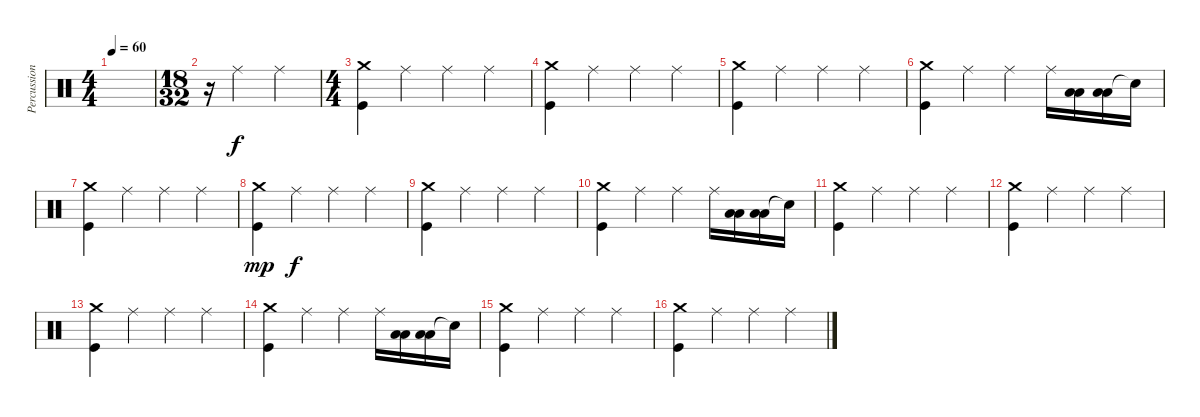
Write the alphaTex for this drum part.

\track ("Percussions" "Percussion") {instrument percussion}
\staff {score}
\articulation defaults
\ts (4 4)
\tempo 60
\clef neutral
\ks c
|
\ts (18 32)
r.16{volume 16} "Ride (middle)".4 "Ride (middle)".4 |
\ts (4 4)
("Crash medium (hit)" "Kick (hit)").4 "Ride (middle)".4 "Ride (middle)".4 "Ride (middle)".4 |
("Crash medium (hit)" "Kick (hit)").4 "Ride (middle)".4 "Ride (middle)".4 "Ride (middle)".4 |
("Crash medium (hit)" "Kick (hit)").4 "Ride (middle)".4 "Ride (middle)".4 "Ride (middle)".4 |
("Crash medium (hit)" "Kick (hit)").4 "Ride (middle)".4 "Ride (middle)".4 "Ride (middle)".16 ("Low Tom (hit)" "Low Tom (hit)").16{volume 8} ("Low Tom (hit)" "Low Tom (hit)").16 "Snare (hit)"{t}.16 |
("Crash medium (hit)" "Kick (hit)").4{volume 16} "Ride (middle)".4 "Ride (middle)".4 "Ride (middle)".4 |
("Crash medium (hit)" "Kick (hit)").4{dy mp} "Ride (middle)".4{dy f} "Ride (middle)".4 "Ride (middle)".4 |
("Crash medium (hit)" "Kick (hit)").4 "Ride (middle)".4 "Ride (middle)".4 "Ride (middle)".4 |
("Crash medium (hit)" "Kick (hit)").4 "Ride (middle)".4 "Ride (middle)".4 "Ride (middle)".16 ("Low Tom (hit)" "Low Tom (hit)").16{volume 12} ("Low Tom (hit)" "Low Tom (hit)").16 "Snare (hit)"{t}.16 |
("Crash medium (hit)" "Kick (hit)").4{volume 16} "Ride (middle)".4 "Ride (middle)".4 "Ride (middle)".4 |
("Crash medium (hit)" "Kick (hit)").4 "Ride (middle)".4 "Ride (middle)".4 "Ride (middle)".4 |
("Crash medium (hit)" "Kick (hit)").4 "Ride (middle)".4 "Ride (middle)".4 "Ride (middle)".4 |
("Crash medium (hit)" "Kick (hit)").4 "Ride (middle)".4 "Ride (middle)".4 "Ride (middle)".16 ("Low Tom (hit)" "Low Tom (hit)").16{volume 12} ("Low Tom (hit)" "Low Tom (hit)").16 "Snare (hit)"{t}.16 |
("Crash medium (hit)" "Kick (hit)").4{volume 16} "Ride (middle)".4 "Ride (middle)".4 "Ride (middle)".4 |
("Crash medium (hit)" "Kick (hit)").4 "Ride (middle)".4 "Ride (middle)".4 "Ride (middle)".4
